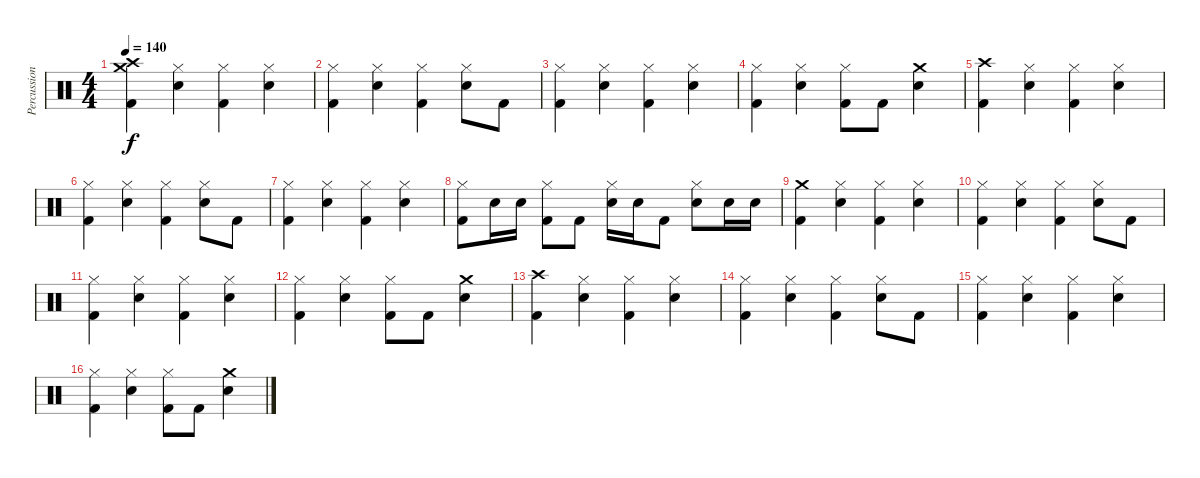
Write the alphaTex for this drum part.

\track ("Percussions" "Percussion") {instrument percussion}
\staff {score}
\articulation defaults
\ts (4 4)
\tempo 140
\clef neutral
\ks c
("Crash high (hit)" "Crash medium (hit)" "Kick (hit) 2").4{dy f} ("Hi-Hat (closed)" "Electric Snare (hit)").4 ("Hi-Hat (closed)" "Kick (hit) 2").4 ("Hi-Hat (closed)" "Electric Snare (hit)").4 |
("Hi-Hat (closed)" "Kick (hit) 2").4 ("Hi-Hat (closed)" "Electric Snare (hit)").4 ("Hi-Hat (closed)" "Kick (hit) 2").4 ("Hi-Hat (closed)" "Electric Snare (hit)").8 "Kick (hit) 2".8 |
("Hi-Hat (closed)" "Kick (hit) 2").4 ("Hi-Hat (closed)" "Electric Snare (hit)").4 ("Hi-Hat (closed)" "Kick (hit) 2").4 ("Hi-Hat (closed)" "Electric Snare (hit)").4 |
("Hi-Hat (closed)" "Kick (hit) 2").4 ("Hi-Hat (closed)" "Electric Snare (hit)").4 ("Hi-Hat (closed)" "Kick (hit) 2").8 "Kick (hit) 2".8 ("Crash medium (hit)" "Electric Snare (hit)").4 |
("Crash high (hit)" "Kick (hit) 2").4 ("Hi-Hat (closed)" "Electric Snare (hit)").4 ("Hi-Hat (closed)" "Kick (hit) 2").4 ("Hi-Hat (closed)" "Electric Snare (hit)").4 |
("Hi-Hat (closed)" "Kick (hit) 2").4 ("Hi-Hat (closed)" "Electric Snare (hit)").4 ("Hi-Hat (closed)" "Kick (hit) 2").4 ("Hi-Hat (closed)" "Electric Snare (hit)").8 "Kick (hit) 2".8 |
("Hi-Hat (closed)" "Kick (hit) 2").4 ("Hi-Hat (closed)" "Electric Snare (hit)").4 ("Hi-Hat (closed)" "Kick (hit) 2").4 ("Hi-Hat (closed)" "Electric Snare (hit)").4 |
("Hi-Hat (closed)" "Kick (hit) 2").8 "Electric Snare (hit)".16 "Electric Snare (hit)".16 ("Hi-Hat (closed)" "Kick (hit) 2").8 "Kick (hit) 2".8 ("Hi-Hat (closed)" "Electric Snare (hit)").16 "Electric Snare (hit)".16 "Kick (hit) 2".8 ("Hi-Hat (closed)" "Electric Snare (hit)").8 "Electric Snare (hit)".16 "Electric Snare (hit)".16 |
("Crash medium (hit)" "Kick (hit) 2").4 ("Hi-Hat (closed)" "Electric Snare (hit)").4 ("Hi-Hat (closed)" "Kick (hit) 2").4 ("Hi-Hat (closed)" "Electric Snare (hit)").4 |
("Hi-Hat (closed)" "Kick (hit) 2").4 ("Hi-Hat (closed)" "Electric Snare (hit)").4 ("Hi-Hat (closed)" "Kick (hit) 2").4 ("Hi-Hat (closed)" "Electric Snare (hit)").8 "Kick (hit) 2".8 |
("Hi-Hat (closed)" "Kick (hit) 2").4 ("Hi-Hat (closed)" "Electric Snare (hit)").4 ("Hi-Hat (closed)" "Kick (hit) 2").4 ("Hi-Hat (closed)" "Electric Snare (hit)").4 |
("Hi-Hat (closed)" "Kick (hit) 2").4 ("Hi-Hat (closed)" "Electric Snare (hit)").4 ("Hi-Hat (closed)" "Kick (hit) 2").8 "Kick (hit) 2".8 ("Crash medium (hit)" "Electric Snare (hit)").4 |
("Crash high (hit)" "Kick (hit) 2").4 ("Hi-Hat (closed)" "Electric Snare (hit)").4 ("Hi-Hat (closed)" "Kick (hit) 2").4 ("Hi-Hat (closed)" "Electric Snare (hit)").4 |
("Hi-Hat (closed)" "Kick (hit) 2").4 ("Hi-Hat (closed)" "Electric Snare (hit)").4 ("Hi-Hat (closed)" "Kick (hit) 2").4 ("Hi-Hat (closed)" "Electric Snare (hit)").8 "Kick (hit) 2".8 |
("Hi-Hat (closed)" "Kick (hit) 2").4 ("Hi-Hat (closed)" "Electric Snare (hit)").4 ("Hi-Hat (closed)" "Kick (hit) 2").4 ("Hi-Hat (closed)" "Electric Snare (hit)").4 |
("Hi-Hat (closed)" "Kick (hit) 2").4 ("Hi-Hat (closed)" "Electric Snare (hit)").4 ("Hi-Hat (closed)" "Kick (hit) 2").8 "Kick (hit) 2".8 ("Crash medium (hit)" "Electric Snare (hit)").4
